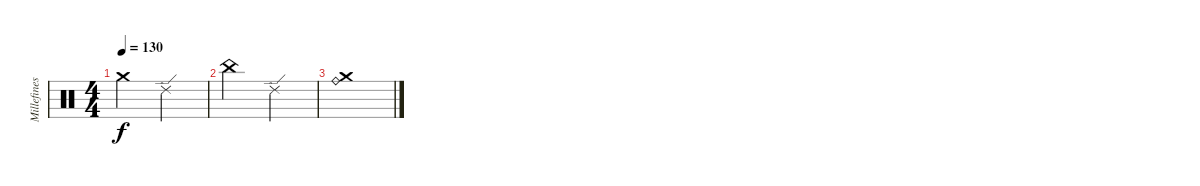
\track ("Millefinestre" "Millefines") {instrument percussion}
\staff {score}
\articulation defaults
\ts (4 4)
\tempo 130
\clef neutral
\ks c "Crash medium (hit)".2{dy f} "Ride (edge) 2".2
|
"China (hit)".2 "Ride (edge) 2".2 |
("Crash medium (hit)" "Ride (bell)").1
